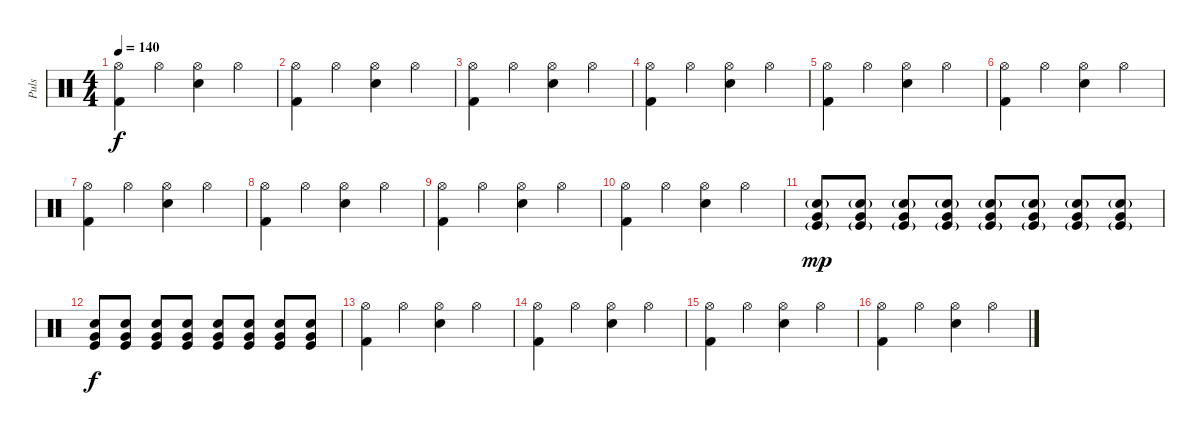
\track ("Puls" "Puls") {instrument percussion}
\staff {score}
\articulation defaults
\ts (4 4)
\tempo 140
\clef neutral
\ks c
("Hi-Hat (open)" "Kick (hit) 2").4{dy f} "Hi-Hat (open)".4 ("Hi-Hat (open)" "Electric Snare (hit)").4 "Hi-Hat (open)".4 |
("Hi-Hat (open)" "Kick (hit) 2").4 "Hi-Hat (open)".4 ("Hi-Hat (open)" "Electric Snare (hit)").4 "Hi-Hat (open)".4 |
("Hi-Hat (open)" "Kick (hit) 2").4 "Hi-Hat (open)".4 ("Hi-Hat (open)" "Electric Snare (hit)").4 "Hi-Hat (open)".4 |
("Hi-Hat (open)" "Kick (hit) 2").4 "Hi-Hat (open)".4 ("Hi-Hat (open)" "Electric Snare (hit)").4 "Hi-Hat (open)".4 |
("Hi-Hat (open)" "Kick (hit) 2").4 "Hi-Hat (open)".4 ("Hi-Hat (open)" "Electric Snare (hit)").4 "Hi-Hat (open)".4 |
("Hi-Hat (open)" "Kick (hit) 2").4 "Hi-Hat (open)".4 ("Hi-Hat (open)" "Electric Snare (hit)").4 "Hi-Hat (open)".4 |
("Hi-Hat (open)" "Kick (hit) 2").4 "Hi-Hat (open)".4 ("Hi-Hat (open)" "Electric Snare (hit)").4 "Hi-Hat (open)".4 |
("Hi-Hat (open)" "Kick (hit) 2").4 "Hi-Hat (open)".4 ("Hi-Hat (open)" "Electric Snare (hit)").4 "Hi-Hat (open)".4 |
("Hi-Hat (open)" "Kick (hit) 2").4 "Hi-Hat (open)".4 ("Hi-Hat (open)" "Electric Snare (hit)").4 "Hi-Hat (open)".4 |
("Hi-Hat (open)" "Kick (hit) 2").4 "Hi-Hat (open)".4 ("Hi-Hat (open)" "Electric Snare (hit)").4 "Hi-Hat (open)".4 |
("Very Low Tom (hit)" "Electric Snare (hit)"{g} "Kick (hit)"{g}).8{dy mp} ("Very Low Tom (hit)" "Electric Snare (hit)"{g} "Kick (hit)"{g}).8 ("Very Low Tom (hit)" "Electric Snare (hit)"{g} "Kick (hit)"{g}).8 ("Very Low Tom (hit)" "Electric Snare (hit)"{g} "Kick (hit)"{g}).8 ("Very Low Tom (hit)" "Electric Snare (hit)"{g} "Kick (hit)"{g}).8 ("Very Low Tom (hit)" "Electric Snare (hit)"{g} "Kick (hit)"{g}).8 ("Very Low Tom (hit)" "Electric Snare (hit)"{g} "Kick (hit)"{g}).8 ("Very Low Tom (hit)" "Electric Snare (hit)"{g} "Kick (hit)"{g}).8 |
("Very Low Tom (hit)" "Electric Snare (hit)" "Kick (hit)").8{dy f} ("Very Low Tom (hit)" "Electric Snare (hit)" "Kick (hit)").8 ("Very Low Tom (hit)" "Electric Snare (hit)" "Kick (hit)").8 ("Very Low Tom (hit)" "Electric Snare (hit)" "Kick (hit)").8 ("Very Low Tom (hit)" "Electric Snare (hit)" "Kick (hit)").8 ("Very Low Tom (hit)" "Electric Snare (hit)" "Kick (hit)").8 ("Very Low Tom (hit)" "Electric Snare (hit)" "Kick (hit)").8 ("Very Low Tom (hit)" "Electric Snare (hit)" "Kick (hit)").8 |
("Hi-Hat (open)" "Kick (hit) 2").4 "Hi-Hat (open)".4 ("Hi-Hat (open)" "Electric Snare (hit)").4 "Hi-Hat (open)".4 |
("Hi-Hat (open)" "Kick (hit) 2").4 "Hi-Hat (open)".4 ("Hi-Hat (open)" "Electric Snare (hit)").4 "Hi-Hat (open)".4 |
("Hi-Hat (open)" "Kick (hit) 2").4 "Hi-Hat (open)".4 ("Hi-Hat (open)" "Electric Snare (hit)").4 "Hi-Hat (open)".4 |
("Hi-Hat (open)" "Kick (hit) 2").4 "Hi-Hat (open)".4 ("Hi-Hat (open)" "Electric Snare (hit)").4 "Hi-Hat (open)".4
